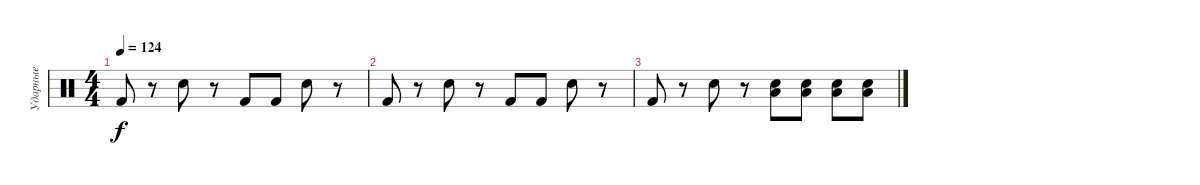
\track ("Ударные" "Ударные") {instrument percussion}
\staff {score}
\articulation defaults
\ts (4 4)
\tempo 124
\clef neutral
\ks c "Kick (hit) 2".8{dy f}
r.8 "Snare (hit) 2".8 r.8 "Kick (hit) 2".8 "Kick (hit) 2".8 "Snare (hit) 2".8 r.8 |
"Kick (hit) 2".8 r.8 "Snare (hit) 2".8 r.8 "Kick (hit) 2".8 "Kick (hit) 2".8 "Snare (hit) 2".8 r.8 |
"Kick (hit) 2".8 r.8 "Snare (hit) 2".8 r.8 ("Snare (hit) 2" "Low Tom (hit)").8 ("Snare (hit) 2" "Low Tom (hit)").8 ("Snare (hit) 2" "Low Tom (hit)").8 ("Snare (hit) 2" "Low Tom (hit)").8
